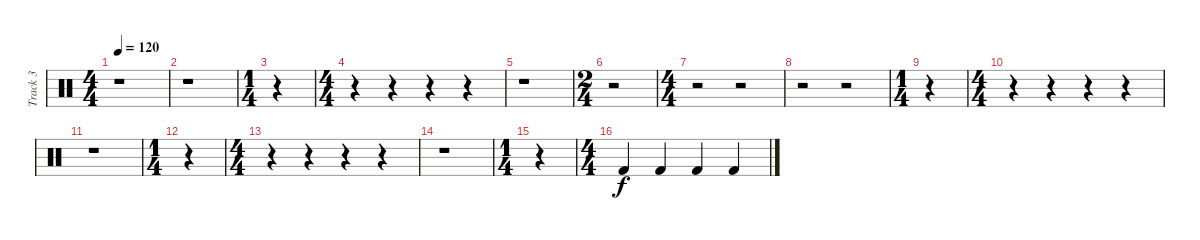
\track ("Track 3" "Track 3") {instrument percussion}
\staff {score}
\articulation defaults
\ts (4 4)
\tempo 120
\clef neutral
\ks c
r.1{dy f} |
r.1 |
\ts (1 4)
r.4 |
\ts (4 4)
r.4 r.4 r.4 r.4 |
r.1 |
\ts (2 4)
r.2 |
\ts (4 4)
r.2 r.2 |
r.2 r.2 |
\ts (1 4)
r.4 |
\ts (4 4)
r.4 r.4 r.4 r.4 |
r.1 |
\ts (1 4)
r.4 |
\ts (4 4)
r.4 r.4 r.4 r.4 |
r.1 |
\ts (1 4)
r.4 |
\ts (4 4)
"Kick (hit) 2".4 "Kick (hit) 2".4 "Kick (hit) 2".4 "Kick (hit) 2".4
